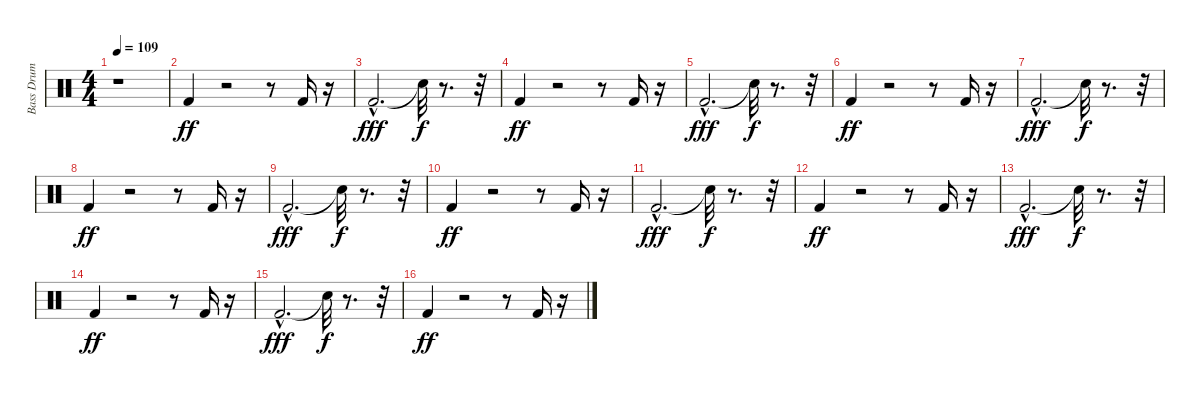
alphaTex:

\track ("Bass Drum" "Bass Drum") {instrument percussion}
\staff {score}
\articulation defaults
\ts (4 4)
\tempo 109
\clef neutral
\ks c
r.1{dy f} |
"Kick (hit) 2".4{dy ff} r.2 r.8 "Kick (hit) 2".16 r.16 |
"Kick (hit) 2"{hac}.2{d dy fff} "Snare (hit)"{t}.32{dy f} r.8{d} r.32 |
"Kick (hit) 2".4{dy ff} r.2 r.8 "Kick (hit) 2".16 r.16 |
"Kick (hit) 2"{hac}.2{d dy fff} "Snare (hit)"{t}.32{dy f} r.8{d} r.32 |
"Kick (hit) 2".4{dy ff} r.2 r.8 "Kick (hit) 2".16 r.16 |
"Kick (hit) 2"{hac}.2{d dy fff} "Snare (hit)"{t}.32{dy f} r.8{d} r.32 |
"Kick (hit) 2".4{dy ff} r.2 r.8 "Kick (hit) 2".16 r.16 |
"Kick (hit) 2"{hac}.2{d dy fff} "Snare (hit)"{t}.32{dy f} r.8{d} r.32 |
"Kick (hit) 2".4{dy ff} r.2 r.8 "Kick (hit) 2".16 r.16 |
"Kick (hit) 2"{hac}.2{d dy fff} "Snare (hit)"{t}.32{dy f} r.8{d} r.32 |
"Kick (hit) 2".4{dy ff} r.2 r.8 "Kick (hit) 2".16 r.16 |
"Kick (hit) 2"{hac}.2{d dy fff} "Snare (hit)"{t}.32{dy f} r.8{d} r.32 |
"Kick (hit) 2".4{dy ff} r.2 r.8 "Kick (hit) 2".16 r.16 |
"Kick (hit) 2"{hac}.2{d dy fff} "Snare (hit)"{t}.32{dy f} r.8{d} r.32 |
"Kick (hit) 2".4{dy ff} r.2 r.8 "Kick (hit) 2".16 r.16
